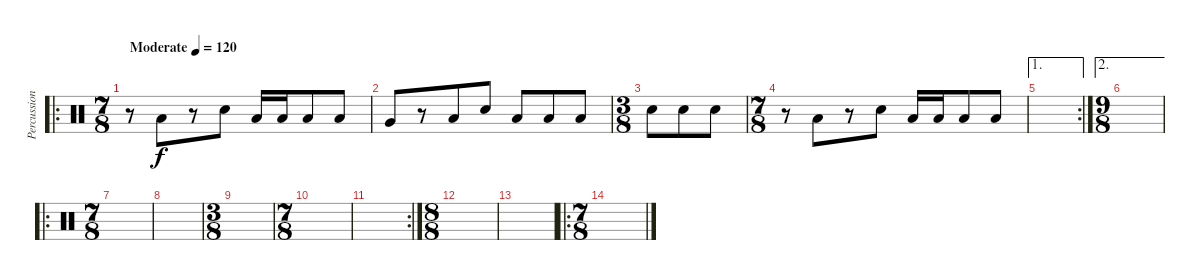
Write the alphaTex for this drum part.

\track ("Percussion" "Percussion") {instrument percussion}
\staff {score}
\articulation defaults
\ro
\ts (7 8)
\tempo (120 "Moderate")
\clef neutral
\ks c
r.8{dy f} "Low Floor Tom (hit)".8 r.8 "Electric Snare (hit)".8 "Low Floor Tom (hit)".16 "Low Floor Tom (hit)".16 "Low Floor Tom (hit)".8 "Low Floor Tom (hit)".8 |
"Very Low Tom (hit)".8 r.8 "Low Floor Tom (hit)".8 "Electric Snare (hit)".8 "Low Tom (hit)".8 "Low Floor Tom (hit)".8 "Low Floor Tom (hit)".8 |
\ts (3 8)
"Electric Snare (hit)".8 "Snare (hit) 2".8 "Snare (hit) 2".8 |
\ts (7 8)
r.8 "Low Floor Tom (hit)".8 r.8 "Electric Snare (hit)".8 "Low Floor Tom (hit)".16 "Low Floor Tom (hit)".16 "Low Floor Tom (hit)".8 "Low Floor Tom (hit)".8 |
\ae 1
\rc 2
|
\ae 2
\ts (9 8)
|
\ro
\ts (7 8)
|
|
\ts (3 8)
|
\ts (7 8)
|
\rc 2
|
\ts (8 8)
|
|
\ro
\ts (7 8)
